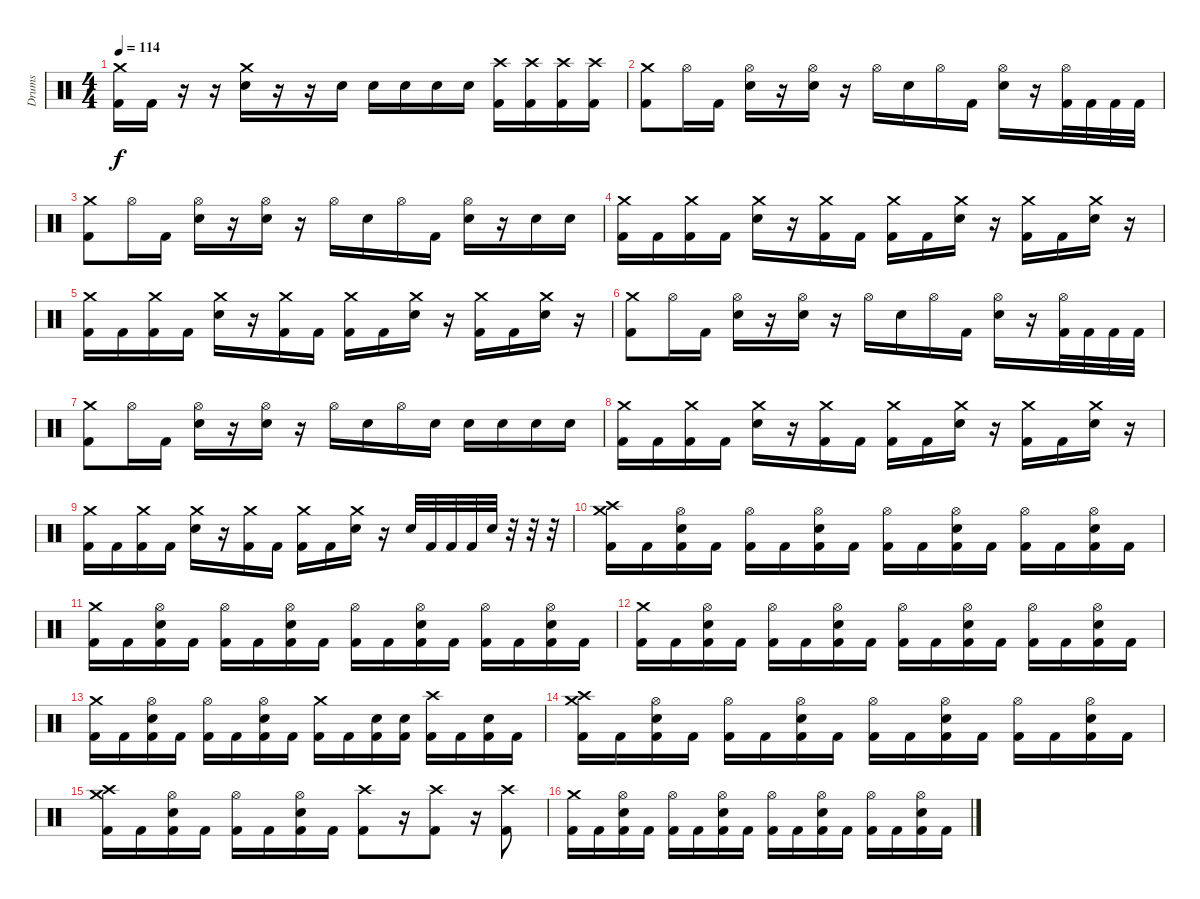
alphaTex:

\track ("Drums" "Drums") {instrument percussion}
\staff {score}
\articulation defaults
\ts (4 4)
\tempo 114
\clef neutral
\ks c
("Crash medium (hit)" "Kick (hit) 2").16{dy f} "Kick (hit) 2".16 r.16 r.16 ("Crash medium (hit)" "Snare (hit) 2").16 r.16 r.16 "Snare (hit) 2".16 "Snare (hit) 2".16 "Snare (hit) 2".16 "Snare (hit) 2".16 "Snare (hit) 2".16 ("Crash high (hit)" "Kick (hit) 2").16 ("Crash high (hit)" "Kick (hit) 2").16 ("Crash high (hit)" "Kick (hit) 2").16 ("Crash high (hit)" "Kick (hit) 2").16 |
("Crash medium (hit)" "Kick (hit) 2").8 "Hi-Hat (open)".16 "Kick (hit) 2".16 ("Hi-Hat (open)" "Snare (hit) 2").16 r.16 ("Hi-Hat (open)" "Snare (hit) 2").16 r.16 "Hi-Hat (open)".16 "Snare (hit) 2".16 "Hi-Hat (open)".16 "Kick (hit) 2".16 ("Hi-Hat (open)" "Snare (hit) 2").16 r.16 ("Hi-Hat (open)" "Kick (hit) 2").32 "Kick (hit) 2".32 "Kick (hit) 2".32 "Kick (hit) 2".32 |
("Crash medium (hit)" "Kick (hit) 2").8 "Hi-Hat (open)".16 "Kick (hit) 2".16 ("Hi-Hat (open)" "Snare (hit) 2").16 r.16 ("Hi-Hat (open)" "Snare (hit) 2").16 r.16 "Hi-Hat (open)".16 "Snare (hit) 2".16 "Hi-Hat (open)".16 "Kick (hit) 2".16 ("Hi-Hat (open)" "Snare (hit) 2").16 r.16 "Snare (hit) 2".16 "Snare (hit) 2".16 |
("Crash medium (hit)" "Kick (hit) 2").16 "Kick (hit) 2".16 ("Crash medium (hit)" "Kick (hit) 2").16 "Kick (hit) 2".16 ("Crash medium (hit)" "Snare (hit) 2").16 r.16 ("Crash medium (hit)" "Kick (hit) 2").16 "Kick (hit) 2".16 ("Crash medium (hit)" "Kick (hit) 2").16 "Kick (hit) 2".16 ("Crash medium (hit)" "Snare (hit) 2").16 r.16 ("Crash medium (hit)" "Kick (hit) 2").16 "Kick (hit) 2".16 ("Crash medium (hit)" "Snare (hit) 2").16 r.16 |
("Crash medium (hit)" "Kick (hit) 2").16 "Kick (hit) 2".16 ("Crash medium (hit)" "Kick (hit) 2").16 "Kick (hit) 2".16 ("Crash medium (hit)" "Snare (hit) 2").16 r.16 ("Crash medium (hit)" "Kick (hit) 2").16 "Kick (hit) 2".16 ("Crash medium (hit)" "Kick (hit) 2").16 "Kick (hit) 2".16 ("Crash medium (hit)" "Snare (hit) 2").16 r.16 ("Crash medium (hit)" "Kick (hit) 2").16 "Kick (hit) 2".16 ("Crash medium (hit)" "Snare (hit) 2").16 r.16 |
("Crash medium (hit)" "Kick (hit) 2").8 "Hi-Hat (open)".16 "Kick (hit) 2".16 ("Hi-Hat (open)" "Snare (hit) 2").16 r.16 ("Hi-Hat (open)" "Snare (hit) 2").16 r.16 "Hi-Hat (open)".16 "Snare (hit) 2".16 "Hi-Hat (open)".16 "Kick (hit) 2".16 ("Hi-Hat (open)" "Snare (hit) 2").16 r.16 ("Hi-Hat (open)" "Kick (hit) 2").32 "Kick (hit) 2".32 "Kick (hit) 2".32 "Kick (hit) 2".32 |
("Crash medium (hit)" "Kick (hit) 2").8 "Hi-Hat (open)".16 "Kick (hit) 2".16 ("Hi-Hat (open)" "Snare (hit) 2").16 r.16 ("Hi-Hat (open)" "Snare (hit) 2").16 r.16 "Hi-Hat (open)".16 "Snare (hit) 2".16 "Hi-Hat (open)".16 "Snare (hit) 2".16 "Snare (hit) 2".16 "Snare (hit) 2".16 "Snare (hit) 2".16 "Snare (hit) 2".16 |
("Crash medium (hit)" "Kick (hit) 2").16 "Kick (hit) 2".16 ("Crash medium (hit)" "Kick (hit) 2").16 "Kick (hit) 2".16 ("Crash medium (hit)" "Snare (hit) 2").16 r.16 ("Crash medium (hit)" "Kick (hit) 2").16 "Kick (hit) 2".16 ("Crash medium (hit)" "Kick (hit) 2").16 "Kick (hit) 2".16 ("Crash medium (hit)" "Snare (hit) 2").16 r.16 ("Crash medium (hit)" "Kick (hit) 2").16 "Kick (hit) 2".16 ("Crash medium (hit)" "Snare (hit) 2").16 r.16 |
("Crash medium (hit)" "Kick (hit) 2").16 "Kick (hit) 2".16 ("Crash medium (hit)" "Kick (hit) 2").16 "Kick (hit) 2".16 ("Crash medium (hit)" "Snare (hit) 2").16 r.16 ("Crash medium (hit)" "Kick (hit) 2").16 "Kick (hit) 2".16 ("Crash medium (hit)" "Kick (hit) 2").16 "Kick (hit) 2".16 ("Crash medium (hit)" "Snare (hit) 2").16 r.16 "Snare (hit) 2".32 "Kick (hit) 2".32 "Kick (hit) 2".32 "Kick (hit) 2".32 "Snare (hit) 2".32 r.32 r.32 r.32 |
("Crash medium (hit)" "Crash high (hit)" "Kick (hit) 2").16 "Kick (hit) 2".16 ("Hi-Hat (open)" "Snare (hit) 2" "Kick (hit) 2").16 "Kick (hit) 2".16 ("Hi-Hat (open)" "Kick (hit) 2").16 "Kick (hit) 2".16 ("Hi-Hat (open)" "Snare (hit) 2" "Kick (hit) 2").16 "Kick (hit) 2".16 ("Hi-Hat (open)" "Kick (hit) 2").16 "Kick (hit) 2".16 ("Hi-Hat (open)" "Snare (hit) 2" "Kick (hit) 2").16 "Kick (hit) 2".16 ("Hi-Hat (open)" "Kick (hit) 2").16 "Kick (hit) 2".16 ("Hi-Hat (open)" "Snare (hit) 2" "Kick (hit) 2").16 "Kick (hit) 2".16 |
("Crash medium (hit)" "Kick (hit) 2").16 "Kick (hit) 2".16 ("Hi-Hat (open)" "Snare (hit) 2" "Kick (hit) 2").16 "Kick (hit) 2".16 ("Hi-Hat (open)" "Kick (hit) 2").16 "Kick (hit) 2".16 ("Hi-Hat (open)" "Snare (hit) 2" "Kick (hit) 2").16 "Kick (hit) 2".16 ("Hi-Hat (open)" "Kick (hit) 2").16 "Kick (hit) 2".16 ("Hi-Hat (open)" "Snare (hit) 2" "Kick (hit) 2").16 "Kick (hit) 2".16 ("Hi-Hat (open)" "Kick (hit) 2").16 "Kick (hit) 2".16 ("Hi-Hat (open)" "Snare (hit) 2" "Kick (hit) 2").16 "Kick (hit) 2".16 |
("Crash medium (hit)" "Kick (hit) 2").16 "Kick (hit) 2".16 ("Hi-Hat (open)" "Snare (hit) 2" "Kick (hit) 2").16 "Kick (hit) 2".16 ("Hi-Hat (open)" "Kick (hit) 2").16 "Kick (hit) 2".16 ("Hi-Hat (open)" "Snare (hit) 2" "Kick (hit) 2").16 "Kick (hit) 2".16 ("Hi-Hat (open)" "Kick (hit) 2").16 "Kick (hit) 2".16 ("Hi-Hat (open)" "Snare (hit) 2" "Kick (hit) 2").16 "Kick (hit) 2".16 ("Hi-Hat (open)" "Kick (hit) 2").16 "Kick (hit) 2".16 ("Hi-Hat (open)" "Snare (hit) 2" "Kick (hit) 2").16 "Kick (hit) 2".16 |
("Crash medium (hit)" "Kick (hit) 2").16 "Kick (hit) 2".16 ("Hi-Hat (open)" "Snare (hit) 2" "Kick (hit) 2").16 "Kick (hit) 2".16 ("Hi-Hat (open)" "Kick (hit) 2").16 "Kick (hit) 2".16 ("Hi-Hat (open)" "Snare (hit) 2" "Kick (hit) 2").16 "Kick (hit) 2".16 ("Crash medium (hit)" "Kick (hit) 2").16 "Kick (hit) 2".16 ("Snare (hit) 2" "Kick (hit) 2").16 ("Snare (hit) 2" "Kick (hit) 2").16 ("Crash high (hit)" "Kick (hit) 2").16 "Kick (hit) 2".16 ("Snare (hit) 2" "Kick (hit) 2").16 "Kick (hit) 2".16 |
("Crash medium (hit)" "Crash high (hit)" "Kick (hit) 2").16 "Kick (hit) 2".16 ("Hi-Hat (open)" "Snare (hit) 2" "Kick (hit) 2").16 "Kick (hit) 2".16 ("Hi-Hat (open)" "Kick (hit) 2").16 "Kick (hit) 2".16 ("Hi-Hat (open)" "Snare (hit) 2" "Kick (hit) 2").16 "Kick (hit) 2".16 ("Hi-Hat (open)" "Kick (hit) 2").16 "Kick (hit) 2".16 ("Hi-Hat (open)" "Snare (hit) 2" "Kick (hit) 2").16 "Kick (hit) 2".16 ("Hi-Hat (open)" "Kick (hit) 2").16 "Kick (hit) 2".16 ("Hi-Hat (open)" "Snare (hit) 2" "Kick (hit) 2").16 "Kick (hit) 2".16 |
("Crash medium (hit)" "Crash high (hit)" "Kick (hit) 2").16 "Kick (hit) 2".16 ("Hi-Hat (open)" "Snare (hit) 2" "Kick (hit) 2").16 "Kick (hit) 2".16 ("Hi-Hat (open)" "Kick (hit) 2").16 "Kick (hit) 2".16 ("Hi-Hat (open)" "Snare (hit) 2" "Kick (hit) 2").16 "Kick (hit) 2".16 ("Crash high (hit)" "Kick (hit) 2").8 r.16{volume 0} ("Crash high (hit)" "Kick (hit) 2").8{volume 14} r.16{volume 0} ("Crash high (hit)" "Kick (hit) 2").8{volume 13} |
("Crash medium (hit)" "Kick (hit) 2").16{volume 16} "Kick (hit) 2".16 ("Hi-Hat (open)" "Snare (hit) 2" "Kick (hit) 2").16 "Kick (hit) 2".16 ("Hi-Hat (open)" "Kick (hit) 2").16 "Kick (hit) 2".16 ("Hi-Hat (open)" "Snare (hit) 2" "Kick (hit) 2").16 "Kick (hit) 2".16 ("Hi-Hat (open)" "Kick (hit) 2").16 "Kick (hit) 2".16 ("Hi-Hat (open)" "Snare (hit) 2" "Kick (hit) 2").16 "Kick (hit) 2".16 ("Hi-Hat (open)" "Kick (hit) 2").16 "Kick (hit) 2".16 ("Hi-Hat (open)" "Snare (hit) 2" "Kick (hit) 2").16 "Kick (hit) 2".16
